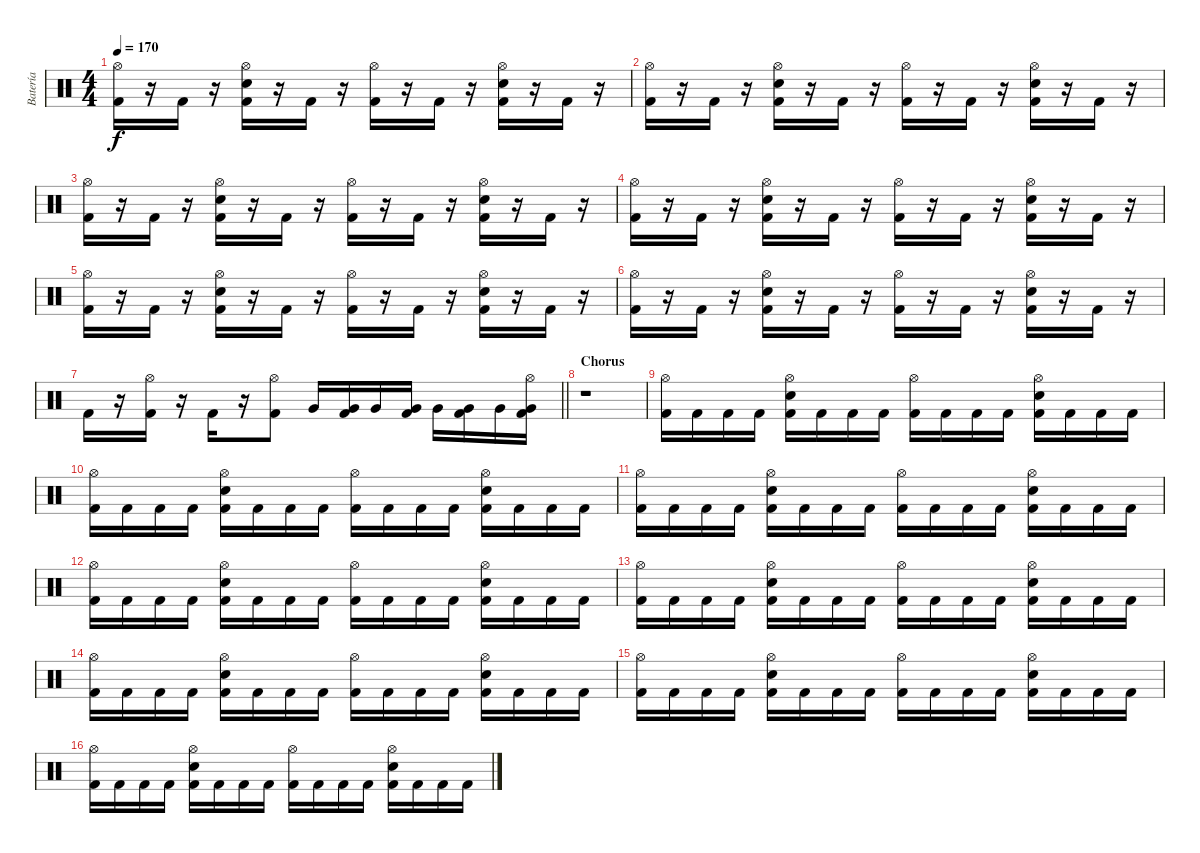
\track ("Batería" "Batería") {instrument percussion}
\staff {score}
\articulation defaults
\ts (4 4)
\tempo 170
\clef neutral
\ks c
("Hi-Hat (open)" "Kick (hit) 2").16{dy f} r.16 "Kick (hit) 2".16 r.16 ("Hi-Hat (open)" "Snare (hit) 2" "Kick (hit) 2").16 r.16 "Kick (hit) 2".16 r.16 ("Hi-Hat (open)" "Kick (hit) 2").16 r.16 "Kick (hit) 2".16 r.16 ("Hi-Hat (open)" "Snare (hit) 2" "Kick (hit) 2").16 r.16 "Kick (hit) 2".16 r.16 |
("Hi-Hat (open)" "Kick (hit) 2").16 r.16 "Kick (hit) 2".16 r.16 ("Hi-Hat (open)" "Snare (hit) 2" "Kick (hit) 2").16 r.16 "Kick (hit) 2".16 r.16 ("Hi-Hat (open)" "Kick (hit) 2").16 r.16 "Kick (hit) 2".16 r.16 ("Hi-Hat (open)" "Snare (hit) 2" "Kick (hit) 2").16 r.16 "Kick (hit) 2".16 r.16 |
("Hi-Hat (open)" "Kick (hit) 2").16 r.16 "Kick (hit) 2".16 r.16 ("Hi-Hat (open)" "Snare (hit) 2" "Kick (hit) 2").16 r.16 "Kick (hit) 2".16 r.16 ("Hi-Hat (open)" "Kick (hit) 2").16 r.16 "Kick (hit) 2".16 r.16 ("Hi-Hat (open)" "Snare (hit) 2" "Kick (hit) 2").16 r.16 "Kick (hit) 2".16 r.16 |
("Hi-Hat (open)" "Kick (hit) 2").16 r.16 "Kick (hit) 2".16 r.16 ("Hi-Hat (open)" "Snare (hit) 2" "Kick (hit) 2").16 r.16 "Kick (hit) 2".16 r.16 ("Hi-Hat (open)" "Kick (hit) 2").16 r.16 "Kick (hit) 2".16 r.16 ("Hi-Hat (open)" "Snare (hit) 2" "Kick (hit) 2").16 r.16 "Kick (hit) 2".16 r.16 |
("Hi-Hat (open)" "Kick (hit) 2").16 r.16 "Kick (hit) 2".16 r.16 ("Hi-Hat (open)" "Snare (hit) 2" "Kick (hit) 2").16 r.16 "Kick (hit) 2".16 r.16 ("Hi-Hat (open)" "Kick (hit) 2").16 r.16 "Kick (hit) 2".16 r.16 ("Hi-Hat (open)" "Snare (hit) 2" "Kick (hit) 2").16 r.16 "Kick (hit) 2".16 r.16 |
("Hi-Hat (open)" "Kick (hit) 2").16 r.16 "Kick (hit) 2".16 r.16 ("Hi-Hat (open)" "Snare (hit) 2" "Kick (hit) 2").16 r.16 "Kick (hit) 2".16 r.16 ("Hi-Hat (open)" "Kick (hit) 2").16 r.16 "Kick (hit) 2".16 r.16 ("Hi-Hat (open)" "Snare (hit) 2" "Kick (hit) 2").16 r.16 "Kick (hit) 2".16 r.16 |
\barLineRight lightlight "Kick (hit) 2".16
r.16 ("Hi-Hat (open)" "Kick (hit) 2").16 r.16 "Kick (hit) 2".16 r.16 ("Hi-Hat (open)" "Kick (hit) 2").8 "Very Low Tom (hit)".16 ("Very Low Tom (hit)" "Kick (hit) 2").16 "Very Low Tom (hit)".16 ("Very Low Tom (hit)" "Kick (hit) 2").16 "Very Low Tom (hit)".16 ("Very Low Tom (hit)" "Kick (hit) 2").16 "Very Low Tom (hit)".16 ("Hi-Hat (open)" "Very Low Tom (hit)" "Kick (hit) 2").16 |
\section ("" "Chorus")
r.1 |
("Hi-Hat (open)" "Kick (hit) 2").16 "Kick (hit) 2".16 "Kick (hit) 2".16 "Kick (hit) 2".16 ("Hi-Hat (open)" "Snare (hit) 2" "Kick (hit) 2").16 "Kick (hit) 2".16 "Kick (hit) 2".16 "Kick (hit) 2".16 ("Hi-Hat (open)" "Kick (hit) 2").16 "Kick (hit) 2".16 "Kick (hit) 2".16 "Kick (hit) 2".16 ("Hi-Hat (open)" "Snare (hit) 2" "Kick (hit) 2").16 "Kick (hit) 2".16 "Kick (hit) 2".16 "Kick (hit) 2".16 |
("Hi-Hat (open)" "Kick (hit) 2").16 "Kick (hit) 2".16 "Kick (hit) 2".16 "Kick (hit) 2".16 ("Hi-Hat (open)" "Snare (hit) 2" "Kick (hit) 2").16 "Kick (hit) 2".16 "Kick (hit) 2".16 "Kick (hit) 2".16 ("Hi-Hat (open)" "Kick (hit) 2").16 "Kick (hit) 2".16 "Kick (hit) 2".16 "Kick (hit) 2".16 ("Hi-Hat (open)" "Snare (hit) 2" "Kick (hit) 2").16 "Kick (hit) 2".16 "Kick (hit) 2".16 "Kick (hit) 2".16 |
("Hi-Hat (open)" "Kick (hit) 2").16 "Kick (hit) 2".16 "Kick (hit) 2".16 "Kick (hit) 2".16 ("Hi-Hat (open)" "Snare (hit) 2" "Kick (hit) 2").16 "Kick (hit) 2".16 "Kick (hit) 2".16 "Kick (hit) 2".16 ("Hi-Hat (open)" "Kick (hit) 2").16 "Kick (hit) 2".16 "Kick (hit) 2".16 "Kick (hit) 2".16 ("Hi-Hat (open)" "Snare (hit) 2" "Kick (hit) 2").16 "Kick (hit) 2".16 "Kick (hit) 2".16 "Kick (hit) 2".16 |
("Hi-Hat (open)" "Kick (hit) 2").16 "Kick (hit) 2".16 "Kick (hit) 2".16 "Kick (hit) 2".16 ("Hi-Hat (open)" "Snare (hit) 2" "Kick (hit) 2").16 "Kick (hit) 2".16 "Kick (hit) 2".16 "Kick (hit) 2".16 ("Hi-Hat (open)" "Kick (hit) 2").16 "Kick (hit) 2".16 "Kick (hit) 2".16 "Kick (hit) 2".16 ("Hi-Hat (open)" "Snare (hit) 2" "Kick (hit) 2").16 "Kick (hit) 2".16 "Kick (hit) 2".16 "Kick (hit) 2".16 |
("Hi-Hat (open)" "Kick (hit) 2").16 "Kick (hit) 2".16 "Kick (hit) 2".16 "Kick (hit) 2".16 ("Hi-Hat (open)" "Snare (hit) 2" "Kick (hit) 2").16 "Kick (hit) 2".16 "Kick (hit) 2".16 "Kick (hit) 2".16 ("Hi-Hat (open)" "Kick (hit) 2").16 "Kick (hit) 2".16 "Kick (hit) 2".16 "Kick (hit) 2".16 ("Hi-Hat (open)" "Snare (hit) 2" "Kick (hit) 2").16 "Kick (hit) 2".16 "Kick (hit) 2".16 "Kick (hit) 2".16 |
("Hi-Hat (open)" "Kick (hit) 2").16 "Kick (hit) 2".16 "Kick (hit) 2".16 "Kick (hit) 2".16 ("Hi-Hat (open)" "Snare (hit) 2" "Kick (hit) 2").16 "Kick (hit) 2".16 "Kick (hit) 2".16 "Kick (hit) 2".16 ("Hi-Hat (open)" "Kick (hit) 2").16 "Kick (hit) 2".16 "Kick (hit) 2".16 "Kick (hit) 2".16 ("Hi-Hat (open)" "Snare (hit) 2" "Kick (hit) 2").16 "Kick (hit) 2".16 "Kick (hit) 2".16 "Kick (hit) 2".16 |
("Hi-Hat (open)" "Kick (hit) 2").16 "Kick (hit) 2".16 "Kick (hit) 2".16 "Kick (hit) 2".16 ("Hi-Hat (open)" "Snare (hit) 2" "Kick (hit) 2").16 "Kick (hit) 2".16 "Kick (hit) 2".16 "Kick (hit) 2".16 ("Hi-Hat (open)" "Kick (hit) 2").16 "Kick (hit) 2".16 "Kick (hit) 2".16 "Kick (hit) 2".16 ("Hi-Hat (open)" "Snare (hit) 2" "Kick (hit) 2").16 "Kick (hit) 2".16 "Kick (hit) 2".16 "Kick (hit) 2".16 |
("Hi-Hat (open)" "Kick (hit) 2").16 "Kick (hit) 2".16 "Kick (hit) 2".16 "Kick (hit) 2".16 ("Hi-Hat (open)" "Snare (hit) 2" "Kick (hit) 2").16 "Kick (hit) 2".16 "Kick (hit) 2".16 "Kick (hit) 2".16 ("Hi-Hat (open)" "Kick (hit) 2").16 "Kick (hit) 2".16 "Kick (hit) 2".16 "Kick (hit) 2".16 ("Hi-Hat (open)" "Snare (hit) 2" "Kick (hit) 2").16 "Kick (hit) 2".16 "Kick (hit) 2".16 "Kick (hit) 2".16
